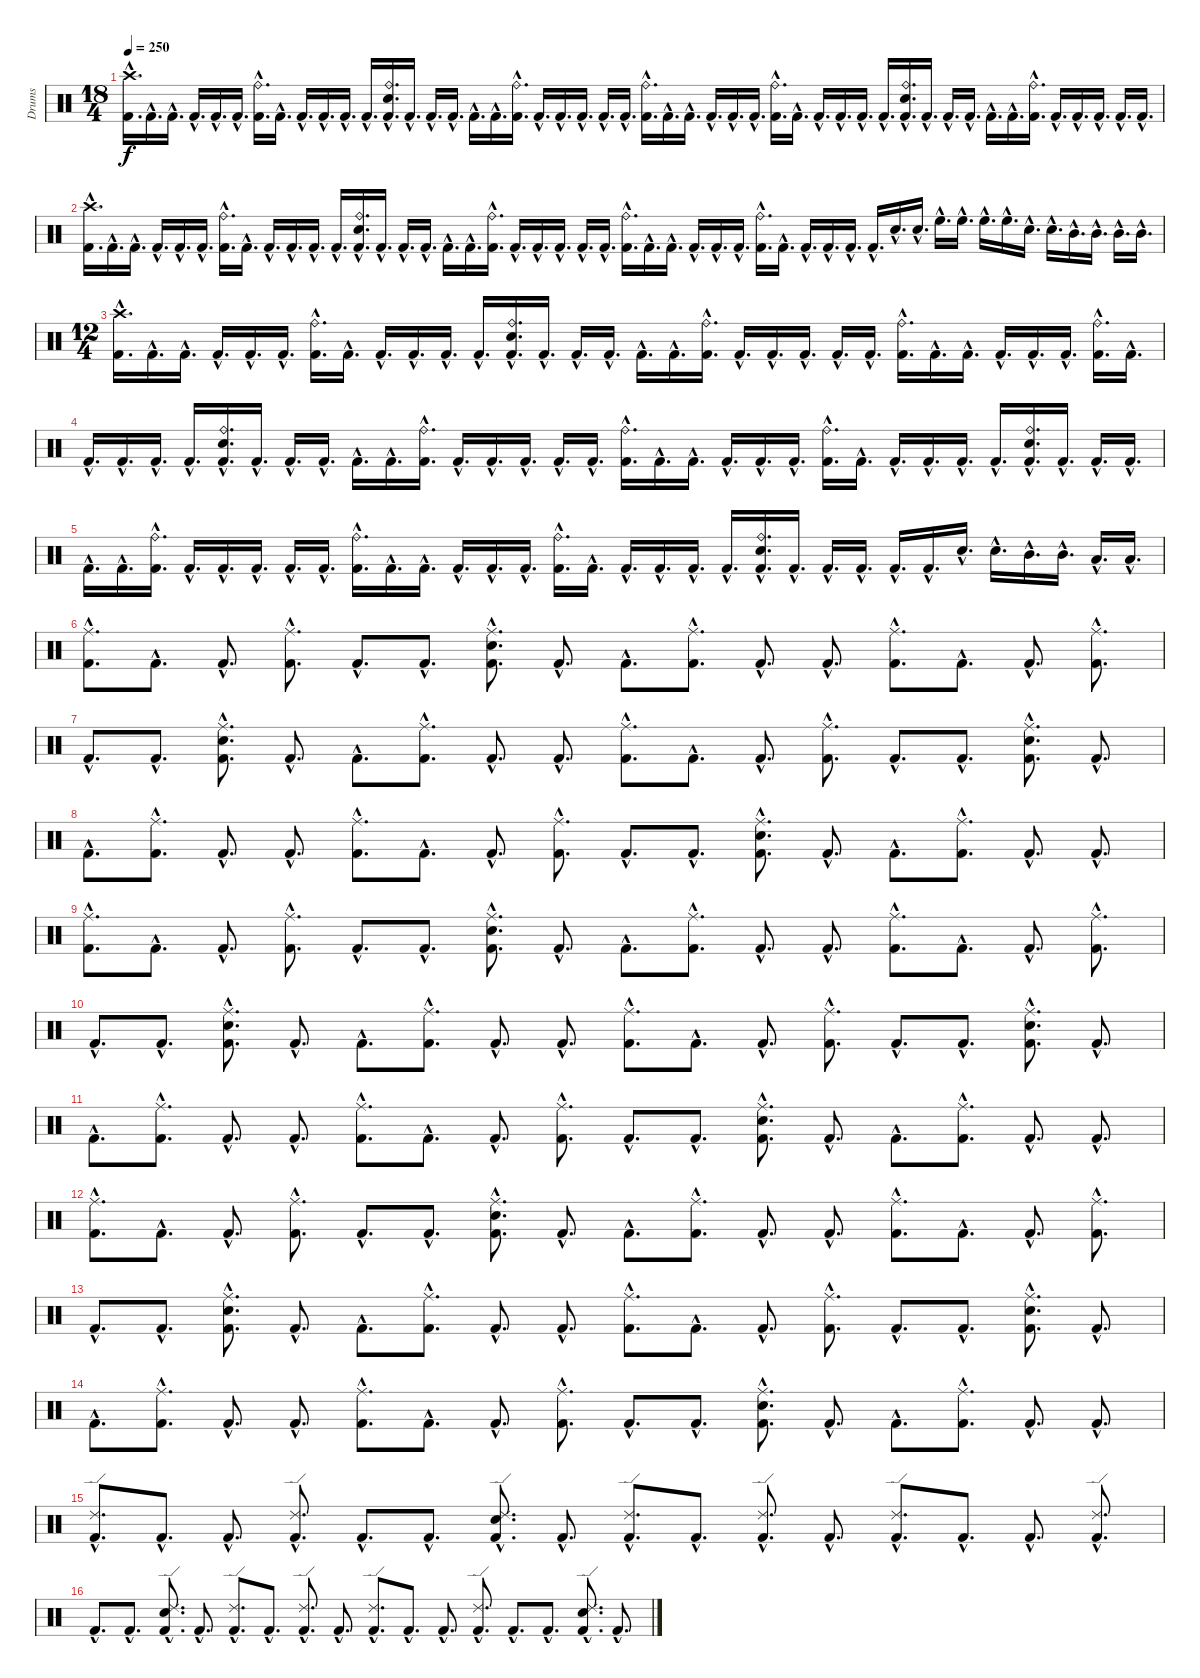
\track ("Drums" "Drums") {instrument percussion}
\staff {score}
\articulation defaults
\ts (18 4)
\tempo 250
\clef neutral
\ks c
("Crash high (hit)"{hac} "Kick (hit) 2"{hac}).16{d dy f} "Kick (hit) 2"{hac}.16{d} "Kick (hit) 2"{hac}.16{d} "Kick (hit) 2"{hac}.16{d} "Kick (hit) 2"{hac}.16{d} "Kick (hit) 2"{hac}.16{d} ("Ride (bell)"{hac} "Kick (hit) 2"{hac}).16{d} "Kick (hit) 2"{hac}.16{d} "Kick (hit) 2"{hac}.16{d} "Kick (hit) 2"{hac}.16{d} "Kick (hit) 2"{hac}.16{d} "Kick (hit) 2"{hac}.16{d} ("Ride (bell)"{hac} "Snare (hit) 2"{hac} "Kick (hit) 2"{hac}).16{d} "Kick (hit) 2"{hac}.16{d} "Kick (hit) 2"{hac}.16{d} "Kick (hit) 2"{hac}.16{d} "Kick (hit) 2"{hac}.16{d} "Kick (hit) 2"{hac}.16{d} ("Ride (bell)"{hac} "Kick (hit) 2"{hac}).16{d} "Kick (hit) 2"{hac}.16{d} "Kick (hit) 2"{hac}.16{d} "Kick (hit) 2"{hac}.16{d} "Kick (hit) 2"{hac}.16{d} "Kick (hit) 2"{hac}.16{d} ("Ride (bell)"{hac} "Kick (hit) 2"{hac}).16{d} "Kick (hit) 2"{hac}.16{d} "Kick (hit) 2"{hac}.16{d} "Kick (hit) 2"{hac}.16{d} "Kick (hit) 2"{hac}.16{d} "Kick (hit) 2"{hac}.16{d} ("Ride (bell)"{hac} "Kick (hit) 2"{hac}).16{d} "Kick (hit) 2"{hac}.16{d} "Kick (hit) 2"{hac}.16{d} "Kick (hit) 2"{hac}.16{d} "Kick (hit) 2"{hac}.16{d} "Kick (hit) 2"{hac}.16{d} ("Ride (bell)"{hac} "Snare (hit) 2"{hac} "Kick (hit) 2"{hac}).16{d} "Kick (hit) 2"{hac}.16{d} "Kick (hit) 2"{hac}.16{d} "Kick (hit) 2"{hac}.16{d} "Kick (hit) 2"{hac}.16{d} "Kick (hit) 2"{hac}.16{d} ("Ride (bell)"{hac} "Kick (hit) 2"{hac}).16{d} "Kick (hit) 2"{hac}.16{d} "Kick (hit) 2"{hac}.16{d} "Kick (hit) 2"{hac}.16{d} "Kick (hit) 2"{hac}.16{d} "Kick (hit) 2"{hac}.16{d} |
("Crash high (hit)"{hac} "Kick (hit) 2"{hac}).16{d} "Kick (hit) 2"{hac}.16{d} "Kick (hit) 2"{hac}.16{d} "Kick (hit) 2"{hac}.16{d} "Kick (hit) 2"{hac}.16{d} "Kick (hit) 2"{hac}.16{d} ("Ride (bell)"{hac} "Kick (hit) 2"{hac}).16{d} "Kick (hit) 2"{hac}.16{d} "Kick (hit) 2"{hac}.16{d} "Kick (hit) 2"{hac}.16{d} "Kick (hit) 2"{hac}.16{d} "Kick (hit) 2"{hac}.16{d} ("Ride (bell)"{hac} "Snare (hit) 2"{hac} "Kick (hit) 2"{hac}).16{d} "Kick (hit) 2"{hac}.16{d} "Kick (hit) 2"{hac}.16{d} "Kick (hit) 2"{hac}.16{d} "Kick (hit) 2"{hac}.16{d} "Kick (hit) 2"{hac}.16{d} ("Ride (bell)"{hac} "Kick (hit) 2"{hac}).16{d} "Kick (hit) 2"{hac}.16{d} "Kick (hit) 2"{hac}.16{d} "Kick (hit) 2"{hac}.16{d} "Kick (hit) 2"{hac}.16{d} "Kick (hit) 2"{hac}.16{d} ("Ride (bell)"{hac} "Kick (hit) 2"{hac}).16{d} "Kick (hit) 2"{hac}.16{d} "Kick (hit) 2"{hac}.16{d} "Kick (hit) 2"{hac}.16{d} "Kick (hit) 2"{hac}.16{d} "Kick (hit) 2"{hac}.16{d} ("Ride (bell)"{hac} "Kick (hit) 2"{hac}).16{d} "Kick (hit) 2"{hac}.16{d} "Kick (hit) 2"{hac}.16{d} "Kick (hit) 2"{hac}.16{d} "Kick (hit) 2"{hac}.16{d} "Kick (hit) 2"{hac}.16{d} "Snare (hit) 2"{hac}.16{d} "Snare (hit) 2"{hac}.16{d} "High Floor Tom (hit)"{hac}.16{d} "High Floor Tom (hit)"{hac}.16{d} "High Floor Tom (hit)"{hac}.16{d} "High Floor Tom (hit)"{hac}.16{d} "Snare (hit) 2"{hac}.16{d} "Snare (hit) 2"{hac}.16{d} "Mid Tom (hit)"{hac}.16{d} "Mid Tom (hit)"{hac}.16{d} "Mid Tom (hit)"{hac}.16{d} "Mid Tom (hit)"{hac}.16{d} |
\ts (12 4)
("Crash high (hit)"{hac} "Kick (hit) 2"{hac}).16{d} "Kick (hit) 2"{hac}.16{d} "Kick (hit) 2"{hac}.16{d} "Kick (hit) 2"{hac}.16{d} "Kick (hit) 2"{hac}.16{d} "Kick (hit) 2"{hac}.16{d} ("Ride (bell)"{hac} "Kick (hit) 2"{hac}).16{d} "Kick (hit) 2"{hac}.16{d} "Kick (hit) 2"{hac}.16{d} "Kick (hit) 2"{hac}.16{d} "Kick (hit) 2"{hac}.16{d} "Kick (hit) 2"{hac}.16{d} ("Ride (bell)"{hac} "Snare (hit) 2"{hac} "Kick (hit) 2"{hac}).16{d} "Kick (hit) 2"{hac}.16{d} "Kick (hit) 2"{hac}.16{d} "Kick (hit) 2"{hac}.16{d} "Kick (hit) 2"{hac}.16{d} "Kick (hit) 2"{hac}.16{d} ("Ride (bell)"{hac} "Kick (hit) 2"{hac}).16{d} "Kick (hit) 2"{hac}.16{d} "Kick (hit) 2"{hac}.16{d} "Kick (hit) 2"{hac}.16{d} "Kick (hit) 2"{hac}.16{d} "Kick (hit) 2"{hac}.16{d} ("Ride (bell)"{hac} "Kick (hit) 2"{hac}).16{d} "Kick (hit) 2"{hac}.16{d} "Kick (hit) 2"{hac}.16{d} "Kick (hit) 2"{hac}.16{d} "Kick (hit) 2"{hac}.16{d} "Kick (hit) 2"{hac}.16{d} ("Ride (bell)"{hac} "Kick (hit) 2"{hac}).16{d} "Kick (hit) 2"{hac}.16{d} |
"Kick (hit) 2"{hac}.16{d} "Kick (hit) 2"{hac}.16{d} "Kick (hit) 2"{hac}.16{d} "Kick (hit) 2"{hac}.16{d} ("Ride (bell)"{hac} "Snare (hit) 2"{hac} "Kick (hit) 2"{hac}).16{d} "Kick (hit) 2"{hac}.16{d} "Kick (hit) 2"{hac}.16{d} "Kick (hit) 2"{hac}.16{d} "Kick (hit) 2"{hac}.16{d} "Kick (hit) 2"{hac}.16{d} ("Ride (bell)"{hac} "Kick (hit) 2"{hac}).16{d} "Kick (hit) 2"{hac}.16{d} "Kick (hit) 2"{hac}.16{d} "Kick (hit) 2"{hac}.16{d} "Kick (hit) 2"{hac}.16{d} "Kick (hit) 2"{hac}.16{d} ("Ride (bell)"{hac} "Kick (hit) 2"{hac}).16{d} "Kick (hit) 2"{hac}.16{d} "Kick (hit) 2"{hac}.16{d} "Kick (hit) 2"{hac}.16{d} "Kick (hit) 2"{hac}.16{d} "Kick (hit) 2"{hac}.16{d} ("Ride (bell)"{hac} "Kick (hit) 2"{hac}).16{d} "Kick (hit) 2"{hac}.16{d} "Kick (hit) 2"{hac}.16{d} "Kick (hit) 2"{hac}.16{d} "Kick (hit) 2"{hac}.16{d} "Kick (hit) 2"{hac}.16{d} ("Ride (bell)"{hac} "Snare (hit) 2"{hac} "Kick (hit) 2"{hac}).16{d} "Kick (hit) 2"{hac}.16{d} "Kick (hit) 2"{hac}.16{d} "Kick (hit) 2"{hac}.16{d} |
"Kick (hit) 2"{hac}.16{d} "Kick (hit) 2"{hac}.16{d} ("Ride (bell)"{hac} "Kick (hit) 2"{hac}).16{d} "Kick (hit) 2"{hac}.16{d} "Kick (hit) 2"{hac}.16{d} "Kick (hit) 2"{hac}.16{d} "Kick (hit) 2"{hac}.16{d} "Kick (hit) 2"{hac}.16{d} ("Ride (bell)"{hac} "Kick (hit) 2"{hac}).16{d} "Kick (hit) 2"{hac}.16{d} "Kick (hit) 2"{hac}.16{d} "Kick (hit) 2"{hac}.16{d} "Kick (hit) 2"{hac}.16{d} "Kick (hit) 2"{hac}.16{d} ("Ride (bell)"{hac} "Kick (hit) 2"{hac}).16{d} "Kick (hit) 2"{hac}.16{d} "Kick (hit) 2"{hac}.16{d} "Kick (hit) 2"{hac}.16{d} "Kick (hit) 2"{hac}.16{d} "Kick (hit) 2"{hac}.16{d} ("Ride (bell)"{hac} "Snare (hit) 2"{hac} "Kick (hit) 2"{hac}).16{d} "Kick (hit) 2"{hac}.16{d} "Kick (hit) 2"{hac}.16{d} "Kick (hit) 2"{hac}.16{d} "Kick (hit) 2"{hac}.16{d} "Kick (hit) 2"{hac}.16{d} "Snare (hit) 2"{hac}.16{d} "Snare (hit) 2"{hac}.16{d} "Mid Tom (hit)"{hac}.16{d} "Mid Tom (hit)"{hac}.16{d} "Low Tom (hit)"{hac}.16{d} "Low Tom (hit)"{hac}.16{d} |
("Ride (middle)"{hac} "Kick (hit) 2"{hac}).8{d} "Kick (hit) 2"{hac}.8{d} "Kick (hit) 2"{hac}.8{d} ("Ride (middle)"{hac} "Kick (hit) 2"{hac}).8{d} "Kick (hit) 2"{hac}.8{d} "Kick (hit) 2"{hac}.8{d} ("Ride (middle)"{hac} "Snare (hit) 2"{hac} "Kick (hit) 2"{hac}).8{d} "Kick (hit) 2"{hac}.8{d} "Kick (hit) 2"{hac}.8{d} ("Ride (middle)"{hac} "Kick (hit) 2"{hac}).8{d} "Kick (hit) 2"{hac}.8{d} "Kick (hit) 2"{hac}.8{d} ("Ride (middle)"{hac} "Kick (hit) 2"{hac}).8{d} "Kick (hit) 2"{hac}.8{d} "Kick (hit) 2"{hac}.8{d} ("Ride (middle)"{hac} "Kick (hit) 2"{hac}).8{d} |
"Kick (hit) 2"{hac}.8{d} "Kick (hit) 2"{hac}.8{d} ("Ride (middle)"{hac} "Snare (hit) 2"{hac} "Kick (hit) 2"{hac}).8{d} "Kick (hit) 2"{hac}.8{d} "Kick (hit) 2"{hac}.8{d} ("Ride (middle)"{hac} "Kick (hit) 2"{hac}).8{d} "Kick (hit) 2"{hac}.8{d} "Kick (hit) 2"{hac}.8{d} ("Ride (middle)"{hac} "Kick (hit) 2"{hac}).8{d} "Kick (hit) 2"{hac}.8{d} "Kick (hit) 2"{hac}.8{d} ("Ride (middle)"{hac} "Kick (hit) 2"{hac}).8{d} "Kick (hit) 2"{hac}.8{d} "Kick (hit) 2"{hac}.8{d} ("Ride (middle)"{hac} "Snare (hit) 2"{hac} "Kick (hit) 2"{hac}).8{d} "Kick (hit) 2"{hac}.8{d} |
"Kick (hit) 2"{hac}.8{d} ("Ride (middle)"{hac} "Kick (hit) 2"{hac}).8{d} "Kick (hit) 2"{hac}.8{d} "Kick (hit) 2"{hac}.8{d} ("Ride (middle)"{hac} "Kick (hit) 2"{hac}).8{d} "Kick (hit) 2"{hac}.8{d} "Kick (hit) 2"{hac}.8{d} ("Ride (middle)"{hac} "Kick (hit) 2"{hac}).8{d} "Kick (hit) 2"{hac}.8{d} "Kick (hit) 2"{hac}.8{d} ("Ride (middle)"{hac} "Snare (hit) 2"{hac} "Kick (hit) 2"{hac}).8{d} "Kick (hit) 2"{hac}.8{d} "Kick (hit) 2"{hac}.8{d} ("Ride (middle)"{hac} "Kick (hit) 2"{hac}).8{d} "Kick (hit) 2"{hac}.8{d} "Kick (hit) 2"{hac}.8{d} |
("Ride (middle)"{hac} "Kick (hit) 2"{hac}).8{d} "Kick (hit) 2"{hac}.8{d} "Kick (hit) 2"{hac}.8{d} ("Ride (middle)"{hac} "Kick (hit) 2"{hac}).8{d} "Kick (hit) 2"{hac}.8{d} "Kick (hit) 2"{hac}.8{d} ("Ride (middle)"{hac} "Snare (hit) 2"{hac} "Kick (hit) 2"{hac}).8{d} "Kick (hit) 2"{hac}.8{d} "Kick (hit) 2"{hac}.8{d} ("Ride (middle)"{hac} "Kick (hit) 2"{hac}).8{d} "Kick (hit) 2"{hac}.8{d} "Kick (hit) 2"{hac}.8{d} ("Ride (middle)"{hac} "Kick (hit) 2"{hac}).8{d} "Kick (hit) 2"{hac}.8{d} "Kick (hit) 2"{hac}.8{d} ("Ride (middle)"{hac} "Kick (hit) 2"{hac}).8{d} |
"Kick (hit) 2"{hac}.8{d} "Kick (hit) 2"{hac}.8{d} ("Ride (middle)"{hac} "Snare (hit) 2"{hac} "Kick (hit) 2"{hac}).8{d} "Kick (hit) 2"{hac}.8{d} "Kick (hit) 2"{hac}.8{d} ("Ride (middle)"{hac} "Kick (hit) 2"{hac}).8{d} "Kick (hit) 2"{hac}.8{d} "Kick (hit) 2"{hac}.8{d} ("Ride (middle)"{hac} "Kick (hit) 2"{hac}).8{d} "Kick (hit) 2"{hac}.8{d} "Kick (hit) 2"{hac}.8{d} ("Ride (middle)"{hac} "Kick (hit) 2"{hac}).8{d} "Kick (hit) 2"{hac}.8{d} "Kick (hit) 2"{hac}.8{d} ("Ride (middle)"{hac} "Snare (hit) 2"{hac} "Kick (hit) 2"{hac}).8{d} "Kick (hit) 2"{hac}.8{d} |
"Kick (hit) 2"{hac}.8{d} ("Ride (middle)"{hac} "Kick (hit) 2"{hac}).8{d} "Kick (hit) 2"{hac}.8{d} "Kick (hit) 2"{hac}.8{d} ("Ride (middle)"{hac} "Kick (hit) 2"{hac}).8{d} "Kick (hit) 2"{hac}.8{d} "Kick (hit) 2"{hac}.8{d} ("Ride (middle)"{hac} "Kick (hit) 2"{hac}).8{d} "Kick (hit) 2"{hac}.8{d} "Kick (hit) 2"{hac}.8{d} ("Ride (middle)"{hac} "Snare (hit) 2"{hac} "Kick (hit) 2"{hac}).8{d} "Kick (hit) 2"{hac}.8{d} "Kick (hit) 2"{hac}.8{d} ("Ride (middle)"{hac} "Kick (hit) 2"{hac}).8{d} "Kick (hit) 2"{hac}.8{d} "Kick (hit) 2"{hac}.8{d} |
("Ride (middle)"{hac} "Kick (hit) 2"{hac}).8{d} "Kick (hit) 2"{hac}.8{d} "Kick (hit) 2"{hac}.8{d} ("Ride (middle)"{hac} "Kick (hit) 2"{hac}).8{d} "Kick (hit) 2"{hac}.8{d} "Kick (hit) 2"{hac}.8{d} ("Ride (middle)"{hac} "Snare (hit) 2"{hac} "Kick (hit) 2"{hac}).8{d} "Kick (hit) 2"{hac}.8{d} "Kick (hit) 2"{hac}.8{d} ("Ride (middle)"{hac} "Kick (hit) 2"{hac}).8{d} "Kick (hit) 2"{hac}.8{d} "Kick (hit) 2"{hac}.8{d} ("Ride (middle)"{hac} "Kick (hit) 2"{hac}).8{d} "Kick (hit) 2"{hac}.8{d} "Kick (hit) 2"{hac}.8{d} ("Ride (middle)"{hac} "Kick (hit) 2"{hac}).8{d} |
"Kick (hit) 2"{hac}.8{d} "Kick (hit) 2"{hac}.8{d} ("Ride (middle)"{hac} "Snare (hit) 2"{hac} "Kick (hit) 2"{hac}).8{d} "Kick (hit) 2"{hac}.8{d} "Kick (hit) 2"{hac}.8{d} ("Ride (middle)"{hac} "Kick (hit) 2"{hac}).8{d} "Kick (hit) 2"{hac}.8{d} "Kick (hit) 2"{hac}.8{d} ("Ride (middle)"{hac} "Kick (hit) 2"{hac}).8{d} "Kick (hit) 2"{hac}.8{d} "Kick (hit) 2"{hac}.8{d} ("Ride (middle)"{hac} "Kick (hit) 2"{hac}).8{d} "Kick (hit) 2"{hac}.8{d} "Kick (hit) 2"{hac}.8{d} ("Ride (middle)"{hac} "Snare (hit) 2"{hac} "Kick (hit) 2"{hac}).8{d} "Kick (hit) 2"{hac}.8{d} |
"Kick (hit) 2"{hac}.8{d} ("Ride (middle)"{hac} "Kick (hit) 2"{hac}).8{d} "Kick (hit) 2"{hac}.8{d} "Kick (hit) 2"{hac}.8{d} ("Ride (middle)"{hac} "Kick (hit) 2"{hac}).8{d} "Kick (hit) 2"{hac}.8{d} "Kick (hit) 2"{hac}.8{d} ("Ride (middle)"{hac} "Kick (hit) 2"{hac}).8{d} "Kick (hit) 2"{hac}.8{d} "Kick (hit) 2"{hac}.8{d} ("Ride (middle)"{hac} "Snare (hit) 2"{hac} "Kick (hit) 2"{hac}).8{d} "Kick (hit) 2"{hac}.8{d} "Kick (hit) 2"{hac}.8{d} ("Ride (middle)"{hac} "Kick (hit) 2"{hac}).8{d} "Kick (hit) 2"{hac}.8{d} "Kick (hit) 2"{hac}.8{d} |
("Ride (edge) 2"{hac} "Kick (hit) 2"{hac}).8{d} "Kick (hit) 2"{hac}.8{d} "Kick (hit) 2"{hac}.8{d} ("Ride (edge) 2"{hac} "Kick (hit) 2"{hac}).8{d} "Kick (hit) 2"{hac}.8{d} "Kick (hit) 2"{hac}.8{d} ("Ride (edge) 2"{hac} "Snare (hit) 2"{hac} "Kick (hit) 2"{hac}).8{d} "Kick (hit) 2"{hac}.8{d} ("Ride (edge) 2"{hac} "Kick (hit) 2"{hac}).8{d} "Kick (hit) 2"{hac}.8{d} ("Ride (edge) 2"{hac} "Kick (hit) 2"{hac}).8{d} "Kick (hit) 2"{hac}.8{d} ("Ride (edge) 2"{hac} "Kick (hit) 2"{hac}).8{d} "Kick (hit) 2"{hac}.8{d} "Kick (hit) 2"{hac}.8{d} ("Ride (edge) 2"{hac} "Kick (hit) 2"{hac}).8{d} |
"Kick (hit) 2"{hac}.8{d} "Kick (hit) 2"{hac}.8{d} ("Ride (edge) 2"{hac} "Snare (hit) 2"{hac} "Kick (hit) 2"{hac}).8{d} "Kick (hit) 2"{hac}.8{d} ("Ride (edge) 2"{hac} "Kick (hit) 2"{hac}).8{d} "Kick (hit) 2"{hac}.8{d} ("Ride (edge) 2"{hac} "Kick (hit) 2"{hac}).8{d} "Kick (hit) 2"{hac}.8{d} ("Ride (edge) 2"{hac} "Kick (hit) 2"{hac}).8{d} "Kick (hit) 2"{hac}.8{d} "Kick (hit) 2"{hac}.8{d} ("Ride (edge) 2"{hac} "Kick (hit) 2"{hac}).8{d} "Kick (hit) 2"{hac}.8{d} "Kick (hit) 2"{hac}.8{d} ("Ride (edge) 2"{hac} "Snare (hit) 2"{hac} "Kick (hit) 2"{hac}).8{d} "Kick (hit) 2"{hac}.8{d}
